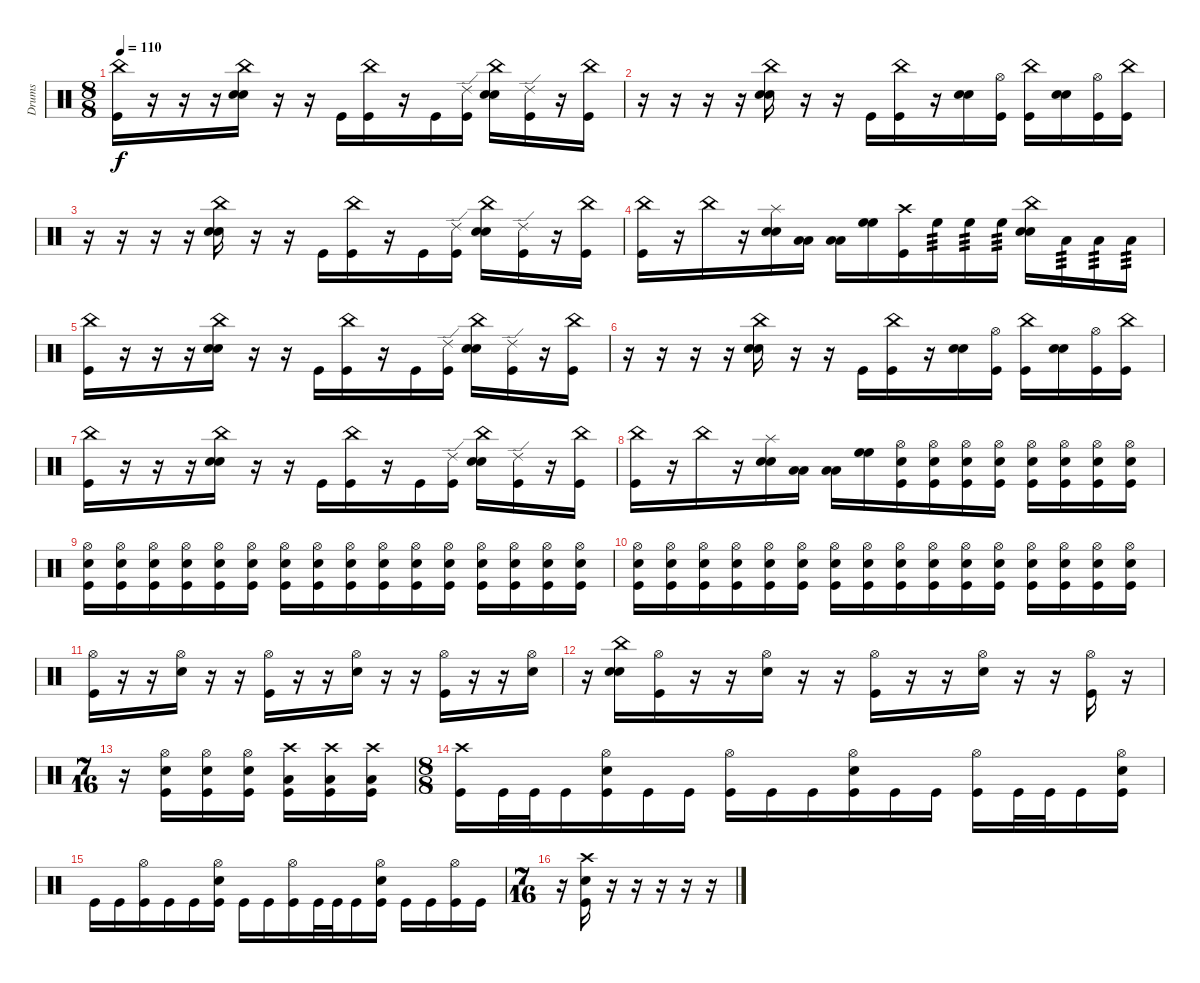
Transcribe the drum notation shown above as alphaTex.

\track ("Drums" "Drums") {instrument percussion}
\staff {score}
\articulation defaults
\ts (8 8)
\tempo 110
\clef neutral
\ks c
("China (hit)" "Kick (hit)").16{dy f} r.16 r.16 r.16 ("China (hit)" "Electric Snare (hit)" "Electric Snare (hit)").16 r.16 r.16 "Kick (hit)".16 ("China (hit)" "Kick (hit)").16 r.16 "Kick (hit)".16 ("Ride (edge) 2" "Kick (hit)").16 ("China (hit)" "Electric Snare (hit)" "Electric Snare (hit)").16 ("Ride (edge) 2" "Kick (hit)").16 r.16 ("China (hit)" "Kick (hit)").16 |
r.16 r.16 r.16 r.16 ("China (hit)" "Electric Snare (hit)" "Electric Snare (hit)").16 r.16 r.16 "Kick (hit)".16 ("China (hit)" "Kick (hit)").16 r.16 ("Electric Snare (hit)" "Electric Snare (hit)").16 ("Hi-Hat (open)" "Kick (hit)").16 ("China (hit)" "Kick (hit)").16 ("Electric Snare (hit)" "Electric Snare (hit)").16 ("Hi-Hat (open)" "Kick (hit)").16 ("China (hit)" "Kick (hit)").16 |
r.16 r.16 r.16 r.16 ("China (hit)" "Electric Snare (hit)" "Electric Snare (hit)").16 r.16 r.16 "Kick (hit)".16 ("China (hit)" "Kick (hit)").16 r.16 "Kick (hit)".16 ("Ride (edge) 2" "Kick (hit)").16 ("China (hit)" "Electric Snare (hit)" "Electric Snare (hit)").16 ("Ride (edge) 2" "Kick (hit)").16 r.16 ("China (hit)" "Kick (hit)").16 |
("China (hit)" "Kick (hit)").16 r.16 "China (hit)".16 r.16 ("Splash (hit)" "Electric Snare (hit)" "Electric Snare (hit)").16 ("Low Tom (hit)" "Low Tom (hit)").16 ("Low Tom (hit)" "Low Floor Tom (hit)").16 ("High Floor Tom (hit)" "High Floor Tom (hit)").16 ("Crash high (hit)" "Kick (hit)").16 "High Floor Tom (hit)".16{tp 3} "High Floor Tom (hit)".16{tp 3} "High Floor Tom (hit)".16{tp 3} ("China (hit)" "Electric Snare (hit)" "Electric Snare (hit)").16 "Low Floor Tom (hit)".16{tp 3} "Low Floor Tom (hit)".16{tp 3} "Low Floor Tom (hit)".16{tp 3} |
("China (hit)" "Kick (hit)").16 r.16 r.16 r.16 ("China (hit)" "Electric Snare (hit)" "Electric Snare (hit)").16 r.16 r.16 "Kick (hit)".16 ("China (hit)" "Kick (hit)").16 r.16 "Kick (hit)".16 ("Ride (edge) 2" "Kick (hit)").16 ("China (hit)" "Electric Snare (hit)" "Electric Snare (hit)").16 ("Ride (edge) 2" "Kick (hit)").16 r.16 ("China (hit)" "Kick (hit)").16 |
r.16 r.16 r.16 r.16 ("China (hit)" "Electric Snare (hit)" "Electric Snare (hit)").16 r.16 r.16 "Kick (hit)".16 ("China (hit)" "Kick (hit)").16 r.16 ("Electric Snare (hit)" "Electric Snare (hit)").16 ("Hi-Hat (open)" "Kick (hit)").16 ("China (hit)" "Kick (hit)").16 ("Electric Snare (hit)" "Electric Snare (hit)").16 ("Hi-Hat (open)" "Kick (hit)").16 ("China (hit)" "Kick (hit)").16 |
("China (hit)" "Kick (hit)").16 r.16 r.16 r.16 ("China (hit)" "Electric Snare (hit)" "Electric Snare (hit)").16 r.16 r.16 "Kick (hit)".16 ("China (hit)" "Kick (hit)").16 r.16 "Kick (hit)".16 ("Ride (edge) 2" "Kick (hit)").16 ("China (hit)" "Electric Snare (hit)" "Electric Snare (hit)").16 ("Ride (edge) 2" "Kick (hit)").16 r.16 ("China (hit)" "Kick (hit)").16 |
("China (hit)" "Kick (hit)").16 r.16 "China (hit)".16 r.16 ("Splash (hit)" "Electric Snare (hit)" "Electric Snare (hit)").16 ("Low Tom (hit)" "Low Tom (hit)").16 ("Low Tom (hit)" "Low Floor Tom (hit)").16 ("High Floor Tom (hit)" "High Floor Tom (hit)").16 ("Hi-Hat (open)" "Electric Snare (hit)" "Kick (hit)").16 ("Hi-Hat (open)" "Electric Snare (hit)" "Kick (hit)").16 ("Hi-Hat (open)" "Electric Snare (hit)" "Kick (hit)").16 ("Hi-Hat (open)" "Electric Snare (hit)" "Kick (hit)").16 ("Hi-Hat (open)" "Electric Snare (hit)" "Kick (hit)").16 ("Hi-Hat (open)" "Electric Snare (hit)" "Kick (hit)").16 ("Hi-Hat (open)" "Electric Snare (hit)" "Kick (hit)").16 ("Hi-Hat (open)" "Electric Snare (hit)" "Kick (hit)").16 |
("Hi-Hat (open)" "Electric Snare (hit)" "Kick (hit)").16 ("Hi-Hat (open)" "Electric Snare (hit)" "Kick (hit)").16 ("Hi-Hat (open)" "Electric Snare (hit)" "Kick (hit)").16 ("Hi-Hat (open)" "Electric Snare (hit)" "Kick (hit)").16 ("Hi-Hat (open)" "Electric Snare (hit)" "Kick (hit)").16 ("Hi-Hat (open)" "Electric Snare (hit)" "Kick (hit)").16 ("Hi-Hat (open)" "Electric Snare (hit)" "Kick (hit)").16 ("Hi-Hat (open)" "Electric Snare (hit)" "Kick (hit)").16 ("Hi-Hat (open)" "Electric Snare (hit)" "Kick (hit)").16 ("Hi-Hat (open)" "Electric Snare (hit)" "Kick (hit)").16 ("Hi-Hat (open)" "Electric Snare (hit)" "Kick (hit)").16 ("Hi-Hat (open)" "Electric Snare (hit)" "Kick (hit)").16 ("Hi-Hat (open)" "Electric Snare (hit)" "Kick (hit)").16 ("Hi-Hat (open)" "Electric Snare (hit)" "Kick (hit)").16 ("Hi-Hat (open)" "Electric Snare (hit)" "Kick (hit)").16 ("Hi-Hat (open)" "Electric Snare (hit)" "Kick (hit)").16 |
("Hi-Hat (open)" "Electric Snare (hit)" "Kick (hit)").16 ("Hi-Hat (open)" "Electric Snare (hit)" "Kick (hit)").16 ("Hi-Hat (open)" "Electric Snare (hit)" "Kick (hit)").16 ("Hi-Hat (open)" "Electric Snare (hit)" "Kick (hit)").16 ("Hi-Hat (open)" "Electric Snare (hit)" "Kick (hit)").16 ("Hi-Hat (open)" "Electric Snare (hit)" "Kick (hit)").16 ("Hi-Hat (open)" "Electric Snare (hit)" "Kick (hit)").16 ("Hi-Hat (open)" "Electric Snare (hit)" "Kick (hit)").16 ("Hi-Hat (open)" "Electric Snare (hit)" "Kick (hit)").16 ("Hi-Hat (open)" "Electric Snare (hit)" "Kick (hit)").16 ("Hi-Hat (open)" "Electric Snare (hit)" "Kick (hit)").16 ("Hi-Hat (open)" "Electric Snare (hit)" "Kick (hit)").16 ("Hi-Hat (open)" "Electric Snare (hit)" "Kick (hit)").16 ("Hi-Hat (open)" "Electric Snare (hit)" "Kick (hit)").16 ("Hi-Hat (open)" "Electric Snare (hit)" "Kick (hit)").16 ("Hi-Hat (open)" "Electric Snare (hit)" "Kick (hit)").16 |
("Hi-Hat (open)" "Kick (hit)").16 r.16 r.16 ("Hi-Hat (open)" "Electric Snare (hit)").16 r.16 r.16 ("Hi-Hat (open)" "Kick (hit)").16 r.16 r.16 ("Hi-Hat (open)" "Electric Snare (hit)").16 r.16 r.16 ("Hi-Hat (open)" "Kick (hit)").16 r.16 r.16 ("Hi-Hat (open)" "Electric Snare (hit)").16 |
r.16 ("China (hit)" "Electric Snare (hit)" "Electric Snare (hit)").16 ("Hi-Hat (open)" "Kick (hit)").16 r.16 r.16 ("Hi-Hat (open)" "Electric Snare (hit)").16 r.16 r.16 ("Hi-Hat (open)" "Kick (hit)").16 r.16 r.16 ("Hi-Hat (open)" "Electric Snare (hit)").16 r.16 r.16 ("Hi-Hat (open)" "Kick (hit)").16 r.16 |
\ts (7 16)
r.16 ("Hi-Hat (open)" "Electric Snare (hit)" "Kick (hit)").16 ("Hi-Hat (open)" "Electric Snare (hit)" "Kick (hit)").16 ("Hi-Hat (open)" "Electric Snare (hit)" "Kick (hit)").16 ("Crash high (hit)" "Low Floor Tom (hit)" "Kick (hit)").16 ("Crash high (hit)" "Low Floor Tom (hit)" "Kick (hit)").16 ("Crash high (hit)" "Low Floor Tom (hit)" "Kick (hit)").16 |
\ts (8 8)
("Crash high (hit)" "Kick (hit)").16 "Kick (hit)".32 "Kick (hit)".32 "Kick (hit)".16 ("Hi-Hat (open)" "Electric Snare (hit)" "Kick (hit)").16 "Kick (hit)".16 "Kick (hit)".16 ("Hi-Hat (open)" "Kick (hit)").16 "Kick (hit)".16 "Kick (hit)".16 ("Hi-Hat (open)" "Electric Snare (hit)" "Kick (hit)").16 "Kick (hit)".16 "Kick (hit)".16 ("Hi-Hat (open)" "Kick (hit)").16 "Kick (hit)".32 "Kick (hit)".32 "Kick (hit)".16 ("Hi-Hat (open)" "Electric Snare (hit)" "Kick (hit)").16 |
"Kick (hit)".16 "Kick (hit)".16 ("Hi-Hat (open)" "Kick (hit)").16 "Kick (hit)".16 "Kick (hit)".16 ("Hi-Hat (open)" "Electric Snare (hit)" "Kick (hit)").16 "Kick (hit)".16 "Kick (hit)".16 ("Hi-Hat (open)" "Kick (hit)").16 "Kick (hit)".32 "Kick (hit)".32 "Kick (hit)".16 ("Hi-Hat (open)" "Electric Snare (hit)" "Kick (hit)").16 "Kick (hit)".16 "Kick (hit)".16 ("Hi-Hat (open)" "Kick (hit)").16 "Kick (hit)".16 |
\ts (7 16)
r.16 ("Crash high (hit)" "Electric Snare (hit)" "Kick (hit)").16 r.16 r.16 r.16 r.16 r.16
